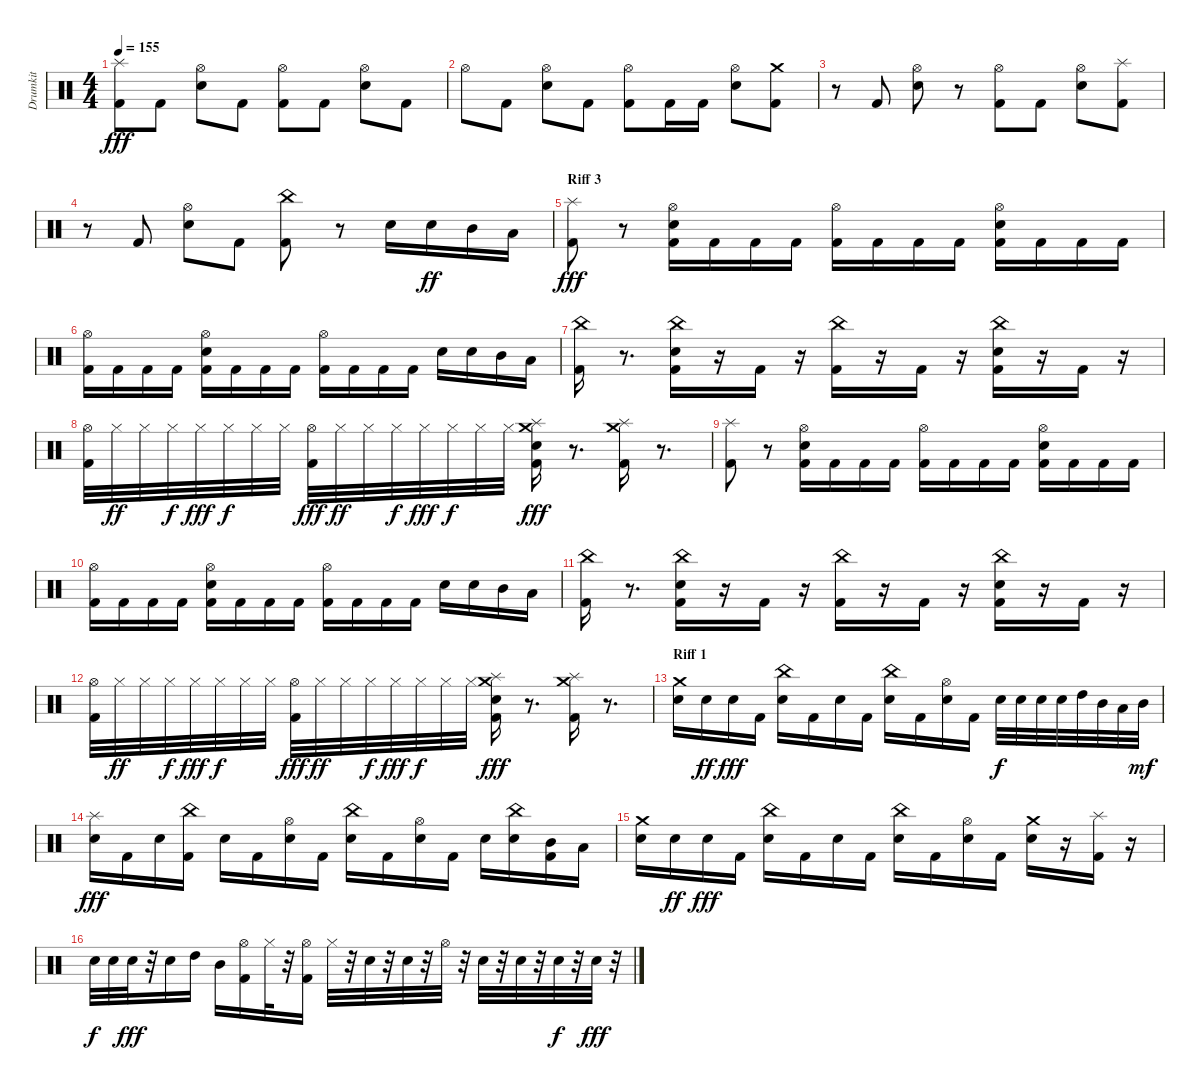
\track ("Drumkit" "Drumkit") {instrument percussion}
\staff {score}
\articulation defaults
\ts (4 4)
\tempo 155
\clef neutral
\ks c
("Kick (hit) 2" "Splash (hit)").8{dy fff} "Kick (hit) 2".8 ("Snare (hit) 2" "Hi-Hat (open)").8 "Kick (hit) 2".8 ("Kick (hit) 2" "Hi-Hat (open)").8 "Kick (hit) 2".8 ("Snare (hit) 2" "Hi-Hat (open)").8 "Kick (hit) 2".8 |
"Hi-Hat (open)".8 "Kick (hit) 2".8 ("Snare (hit) 2" "Hi-Hat (open)").8 "Kick (hit) 2".8 ("Kick (hit) 2" "Hi-Hat (open)").8 "Kick (hit) 2".16 "Kick (hit) 2".16 ("Snare (hit) 2" "Hi-Hat (open)").8 ("Kick (hit) 2" "Crash medium (hit)").8 |
r.8 "Kick (hit) 2".8 ("Snare (hit) 2" "Hi-Hat (open)").8 r.8 ("Kick (hit) 2" "Hi-Hat (open)").8 "Kick (hit) 2".8 ("Snare (hit) 2" "Hi-Hat (open)").8 ("Kick (hit) 2" "Splash (hit)").8 |
r.8 "Kick (hit) 2".8 ("Snare (hit) 2" "Hi-Hat (open)").8 "Kick (hit) 2".8 ("Kick (hit) 2" "China (hit)").8 r.8 "Snare (hit) 2".16 "Snare (hit) 2".16{dy ff} "Mid Tom (hit)".16 "Low Tom (hit)".16 |
\section ("" "Riff 3")
("Kick (hit) 2" "Splash (hit)").8{dy fff} r.8 ("Kick (hit) 2" "Snare (hit) 2" "Hi-Hat (open)").16 "Kick (hit) 2".16 "Kick (hit) 2".16 "Kick (hit) 2".16 ("Kick (hit) 2" "Hi-Hat (open)").16 "Kick (hit) 2".16 "Kick (hit) 2".16 "Kick (hit) 2".16 ("Kick (hit) 2" "Snare (hit) 2" "Hi-Hat (open)").16 "Kick (hit) 2".16 "Kick (hit) 2".16 "Kick (hit) 2".16 |
("Kick (hit) 2" "Hi-Hat (open)").16 "Kick (hit) 2".16 "Kick (hit) 2".16 "Kick (hit) 2".16 ("Kick (hit) 2" "Snare (hit) 2" "Hi-Hat (open)").16 "Kick (hit) 2".16 "Kick (hit) 2".16 "Kick (hit) 2".16 ("Kick (hit) 2" "Hi-Hat (open)").16 "Kick (hit) 2".16 "Kick (hit) 2".16 "Kick (hit) 2".16 "Snare (hit) 2".16 "Snare (hit) 2".16 "Mid Tom (hit)".16 "Low Tom (hit)".16 |
("Kick (hit) 2" "China (hit)").16 r.8{d} ("Kick (hit) 2" "Snare (hit) 2" "China (hit)").16 r.16 "Kick (hit) 2".16 r.16 ("Kick (hit) 2" "China (hit)").16 r.16 "Kick (hit) 2".16 r.16 ("Kick (hit) 2" "Snare (hit) 2" "China (hit)").16 r.16 "Kick (hit) 2".16 r.16 |
("Kick (hit) 2" "Hi-Hat (open)").32 "Hi-Hat (closed)".32{dy ff} "Hi-Hat (closed)".32 "Hi-Hat (closed)".32{dy f} "Hi-Hat (closed)".32{dy fff} "Hi-Hat (closed)".32{dy f} "Hi-Hat (closed)".32 "Hi-Hat (closed)".32 ("Kick (hit) 2" "Hi-Hat (open)").32{dy fff} "Hi-Hat (closed)".32{dy ff} "Hi-Hat (closed)".32 "Hi-Hat (closed)".32{dy f} "Hi-Hat (closed)".32{dy fff} "Hi-Hat (closed)".32{dy f} "Hi-Hat (closed)".32 "Hi-Hat (closed)".32 ("Kick (hit) 2" "Snare (hit) 2" "Splash (hit)" "Crash medium (hit)").16{dy fff} r.8{d} ("Kick (hit) 2" "Splash (hit)" "Crash medium (hit)").16 r.8{d} |
("Kick (hit) 2" "Splash (hit)").8 r.8 ("Kick (hit) 2" "Snare (hit) 2" "Hi-Hat (open)").16 "Kick (hit) 2".16 "Kick (hit) 2".16 "Kick (hit) 2".16 ("Kick (hit) 2" "Hi-Hat (open)").16 "Kick (hit) 2".16 "Kick (hit) 2".16 "Kick (hit) 2".16 ("Kick (hit) 2" "Snare (hit) 2" "Hi-Hat (open)").16 "Kick (hit) 2".16 "Kick (hit) 2".16 "Kick (hit) 2".16 |
("Kick (hit) 2" "Hi-Hat (open)").16 "Kick (hit) 2".16 "Kick (hit) 2".16 "Kick (hit) 2".16 ("Kick (hit) 2" "Snare (hit) 2" "Hi-Hat (open)").16 "Kick (hit) 2".16 "Kick (hit) 2".16 "Kick (hit) 2".16 ("Kick (hit) 2" "Hi-Hat (open)").16 "Kick (hit) 2".16 "Kick (hit) 2".16 "Kick (hit) 2".16 "Snare (hit) 2".16 "Snare (hit) 2".16 "Mid Tom (hit)".16 "Low Tom (hit)".16 |
("Kick (hit) 2" "China (hit)").16 r.8{d} ("Kick (hit) 2" "Snare (hit) 2" "China (hit)").16 r.16 "Kick (hit) 2".16 r.16 ("Kick (hit) 2" "China (hit)").16 r.16 "Kick (hit) 2".16 r.16 ("Kick (hit) 2" "Snare (hit) 2" "China (hit)").16 r.16 "Kick (hit) 2".16 r.16 |
("Kick (hit) 2" "Hi-Hat (open)").32 "Hi-Hat (closed)".32{dy ff} "Hi-Hat (closed)".32 "Hi-Hat (closed)".32{dy f} "Hi-Hat (closed)".32{dy fff} "Hi-Hat (closed)".32{dy f} "Hi-Hat (closed)".32 "Hi-Hat (closed)".32 ("Kick (hit) 2" "Hi-Hat (open)").32{dy fff} "Hi-Hat (closed)".32{dy ff} "Hi-Hat (closed)".32 "Hi-Hat (closed)".32{dy f} "Hi-Hat (closed)".32{dy fff} "Hi-Hat (closed)".32{dy f} "Hi-Hat (closed)".32 "Hi-Hat (closed)".32 ("Kick (hit) 2" "Snare (hit) 2" "Splash (hit)" "Crash medium (hit)").16{dy fff} r.8{d} ("Kick (hit) 2" "Splash (hit)" "Crash medium (hit)").16 r.8{d} |
\section ("" "Riff 1")
("Snare (hit) 2" "Crash medium (hit)").16 "Snare (hit) 2".16{dy ff} "Snare (hit) 2".16{dy fff} "Kick (hit) 2".16 ("Snare (hit) 2" "China (hit)").16 "Kick (hit) 2".16 "Snare (hit) 2".16 "Kick (hit) 2".16 ("Snare (hit) 2" "China (hit)").16 "Kick (hit) 2".16 ("Snare (hit) 2" "Hi-Hat (open)").16 "Kick (hit) 2".16 "Snare (hit) 2".32{dy f} "Snare (hit) 2".32 "Snare (hit) 2".32 "Snare (hit) 2".32 "High Tom (hit)".32 "Mid Tom (hit)".32 "Low Tom (hit)".32 "Mid Tom (hit)".32{dy mf} |
("Snare (hit) 2" "Splash (hit)").16{dy fff} "Kick (hit) 2".16 "Snare (hit) 2".16 ("Kick (hit) 2" "China (hit)").16 "Snare (hit) 2".16 "Kick (hit) 2".16 ("Snare (hit) 2" "Hi-Hat (open)").16 "Kick (hit) 2".16 ("Snare (hit) 2" "China (hit)").16 "Kick (hit) 2".16 ("Snare (hit) 2" "Hi-Hat (open)").16 "Kick (hit) 2".16 "Snare (hit) 2".16 ("Snare (hit) 2" "China (hit)").16 ("Kick (hit) 2" "Mid Tom (hit)").16 "Low Tom (hit)".16 |
("Snare (hit) 2" "Crash medium (hit)").16 "Snare (hit) 2".16{dy ff} "Snare (hit) 2".16{dy fff} "Kick (hit) 2".16 ("Snare (hit) 2" "China (hit)").16 "Kick (hit) 2".16 "Snare (hit) 2".16 "Kick (hit) 2".16 ("Snare (hit) 2" "China (hit)").16 "Kick (hit) 2".16 ("Snare (hit) 2" "Hi-Hat (open)").16 "Kick (hit) 2".16 ("Snare (hit) 2" "Crash medium (hit)").16 r.16 ("Kick (hit) 2" "Splash (hit)").16 r.16 |
"Snare (hit) 2".32{dy f} "Snare (hit) 2".32 "Snare (hit) 2".32{dy fff} r.32 "Snare (hit) 2".16 "High Tom (hit)".16 "Mid Tom (hit)".16 ("Kick (hit) 2" "Hi-Hat (open)").16 "Hi-Hat (closed)".32 r.32 ("Kick (hit) 2" "Hi-Hat (open)").16 "Hi-Hat (closed)".32 r.32 "Snare (hit) 2".32 r.32 "Snare (hit) 2".32 r.32 "Hi-Hat (open)".32 r.32 "Snare (hit) 2".32 r.32 "Snare (hit) 2".32 r.32 "Snare (hit) 2".32{dy f} r.32 "Snare (hit) 2".32{dy fff} r.32
